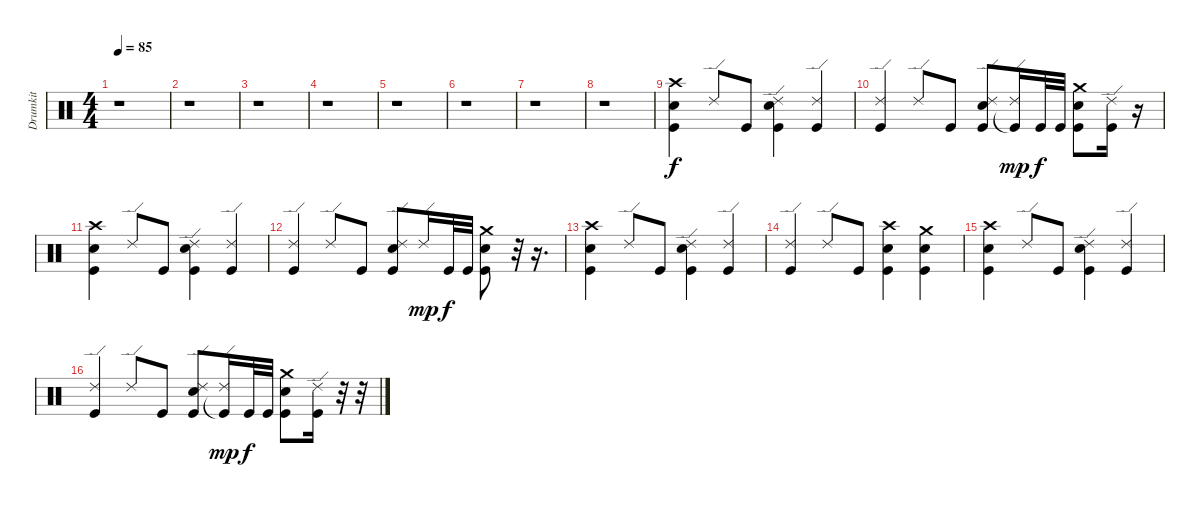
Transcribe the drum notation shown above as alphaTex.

\track ("Drumkit" "Drumkit") {instrument percussion}
\staff {score}
\articulation defaults
\ts (4 4)
\tempo 85
\clef neutral
\ks c
r.1{dy f} |
r.1 |
r.1 |
r.1 |
r.1 |
r.1 |
r.1 |
r.1 |
("Crash high (hit)" "Snare (hit) 2" "Kick (hit)").4 "Ride (edge) 2".8 "Kick (hit)".8 ("Ride (edge) 2" "Snare (hit) 2" "Kick (hit)").4 ("Ride (edge) 2" "Kick (hit)").4 |
("Ride (edge) 2" "Kick (hit)").4 "Ride (edge) 2".8 "Kick (hit)".8 ("Ride (edge) 2" "Snare (hit) 2" "Kick (hit)").8 ("Ride (edge) 2" "Kick (hit)"{t}).16{dy mp} "Kick (hit)".32{dy f} "Kick (hit)".32 ("Crash medium (hit)" "Snare (hit) 2" "Kick (hit)").8 ("Ride (edge) 2" "Kick (hit)").16 r.16 |
("Crash high (hit)" "Snare (hit) 2" "Kick (hit)").4 "Ride (edge) 2".8 "Kick (hit)".8 ("Ride (edge) 2" "Snare (hit) 2" "Kick (hit)").4 ("Ride (edge) 2" "Kick (hit)").4 |
("Ride (edge) 2" "Kick (hit)").4 "Ride (edge) 2".8 "Kick (hit)".8 ("Ride (edge) 2" "Snare (hit) 2" "Kick (hit)").8 "Ride (edge) 2".16{dy mp} "Kick (hit)".32{dy f} "Kick (hit)".32 ("Crash medium (hit)" "Snare (hit) 2" "Kick (hit)").8 r.32 r.16{d} |
("Crash high (hit)" "Snare (hit) 2" "Kick (hit)").4 "Ride (edge) 2".8 "Kick (hit)".8 ("Ride (edge) 2" "Snare (hit) 2" "Kick (hit)").4 ("Ride (edge) 2" "Kick (hit)").4 |
("Ride (edge) 2" "Kick (hit)").4 "Ride (edge) 2".8 "Kick (hit)".8 ("Crash high (hit)" "Snare (hit) 2" "Kick (hit)").4 ("Crash medium (hit)" "Snare (hit) 2" "Kick (hit)").4 |
("Crash high (hit)" "Snare (hit) 2" "Kick (hit)").4 "Ride (edge) 2".8 "Kick (hit)".8 ("Ride (edge) 2" "Snare (hit) 2" "Kick (hit)").4 ("Ride (edge) 2" "Kick (hit)").4 |
("Ride (edge) 2" "Kick (hit)").4 "Ride (edge) 2".8 "Kick (hit)".8 ("Ride (edge) 2" "Snare (hit) 2" "Kick (hit)").8 ("Ride (edge) 2" "Kick (hit)"{t}).16{dy mp} "Kick (hit)".32{dy f} "Kick (hit)".32 ("Crash medium (hit)" "Snare (hit) 2" "Kick (hit)").8 ("Ride (edge) 2" "Kick (hit)").16 r.32 r.32
